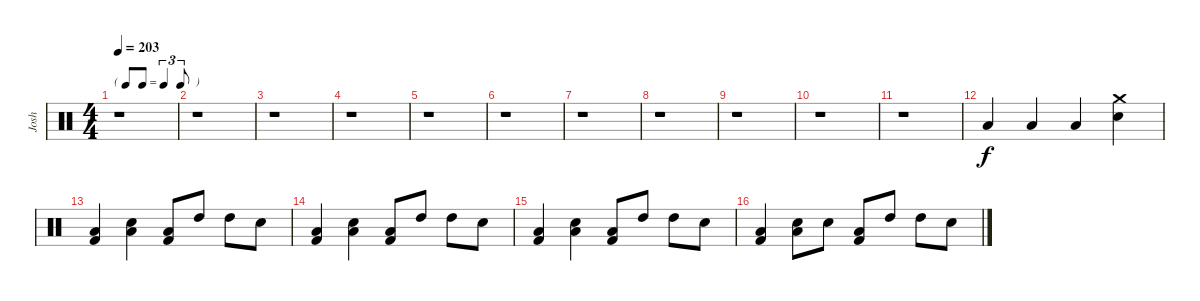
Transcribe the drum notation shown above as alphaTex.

\track ("Josh" "Josh") {instrument percussion}
\staff {score}
\articulation defaults
\ts (4 4)
\tf triplet8th
\tempo 203
\clef neutral
\ks c
r.1{dy f} |
r.1 |
r.1 |
r.1 |
r.1 |
r.1 |
r.1 |
r.1 |
r.1 |
r.1 |
r.1 |
"Low Tom (hit)".4 "Low Tom (hit)".4 "Low Tom (hit)".4 ("Crash medium (hit)" "Electric Snare (hit)").4 |
("Low Tom (hit)" "Kick (hit) 2").4 ("Low Tom (hit)" "Electric Snare (hit)").4 ("Low Tom (hit)" "Kick (hit) 2").8 "High Tom (hit)".8 "High Tom (hit)".8 "Electric Snare (hit)".8 |
("Low Tom (hit)" "Kick (hit) 2").4 ("Low Tom (hit)" "Electric Snare (hit)").4 ("Low Tom (hit)" "Kick (hit) 2").8 "High Tom (hit)".8 "High Tom (hit)".8 "Electric Snare (hit)".8 |
("Low Tom (hit)" "Kick (hit) 2").4 ("Low Tom (hit)" "Electric Snare (hit)").4 ("Low Tom (hit)" "Kick (hit) 2").8 "High Tom (hit)".8 "High Tom (hit)".8 "Electric Snare (hit)".8 |
("Low Tom (hit)" "Kick (hit) 2").4 ("Low Tom (hit)" "Electric Snare (hit)").8 "Electric Snare (hit)".8 ("Low Tom (hit)" "Kick (hit) 2").8 "High Tom (hit)".8 "High Tom (hit)".8 "Electric Snare (hit)".8
